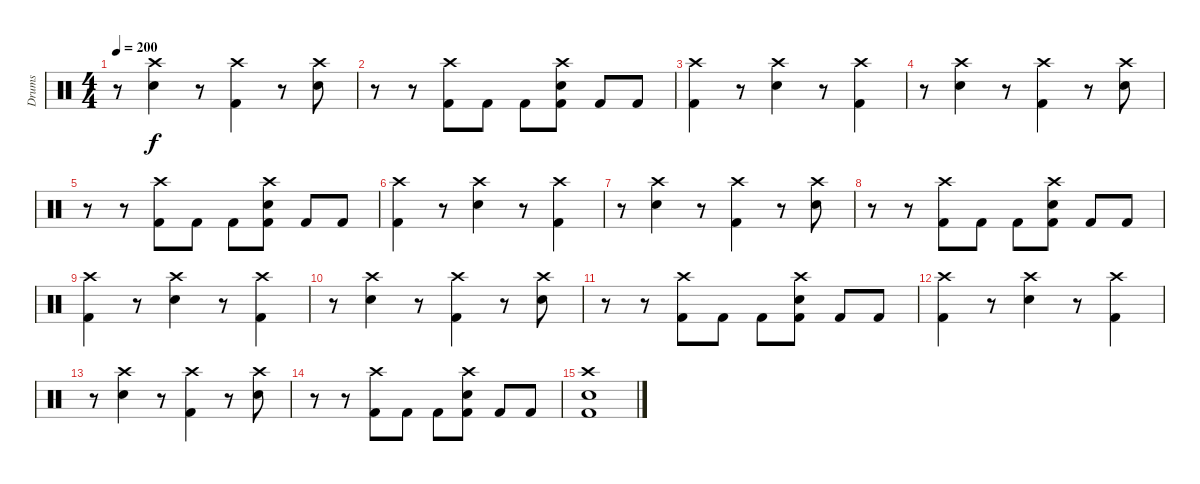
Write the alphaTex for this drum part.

\track ("Drums" "Drums") {instrument percussion}
\staff {score}
\articulation defaults
\ts (4 4)
\tempo 200
\clef neutral
\ks c
r.8{dy f} ("Crash high (hit)" "Snare (hit) 2").4 r.8 ("Crash high (hit)" "Kick (hit) 2").4 r.8 ("Crash high (hit)" "Snare (hit) 2").8 |
r.8 r.8 ("Crash high (hit)" "Kick (hit) 2").8 "Kick (hit) 2".8 "Kick (hit) 2".8 ("Crash high (hit)" "Snare (hit) 2" "Kick (hit) 2").8 "Kick (hit) 2".8 "Kick (hit) 2".8 |
("Crash high (hit)" "Kick (hit) 2").4 r.8 ("Crash high (hit)" "Snare (hit) 2").4 r.8 ("Crash high (hit)" "Kick (hit) 2").4 |
r.8 ("Crash high (hit)" "Snare (hit) 2").4 r.8 ("Crash high (hit)" "Kick (hit) 2").4 r.8 ("Crash high (hit)" "Snare (hit) 2").8 |
r.8 r.8 ("Crash high (hit)" "Kick (hit) 2").8 "Kick (hit) 2".8 "Kick (hit) 2".8 ("Crash high (hit)" "Snare (hit) 2" "Kick (hit) 2").8 "Kick (hit) 2".8 "Kick (hit) 2".8 |
("Crash high (hit)" "Kick (hit) 2").4 r.8 ("Crash high (hit)" "Snare (hit) 2").4 r.8 ("Crash high (hit)" "Kick (hit) 2").4 |
r.8 ("Crash high (hit)" "Snare (hit) 2").4 r.8 ("Crash high (hit)" "Kick (hit) 2").4 r.8 ("Crash high (hit)" "Snare (hit) 2").8 |
r.8 r.8 ("Crash high (hit)" "Kick (hit) 2").8 "Kick (hit) 2".8 "Kick (hit) 2".8 ("Crash high (hit)" "Snare (hit) 2" "Kick (hit) 2").8 "Kick (hit) 2".8 "Kick (hit) 2".8 |
("Crash high (hit)" "Kick (hit) 2").4 r.8 ("Crash high (hit)" "Snare (hit) 2").4 r.8 ("Crash high (hit)" "Kick (hit) 2").4 |
r.8 ("Crash high (hit)" "Snare (hit) 2").4 r.8 ("Crash high (hit)" "Kick (hit) 2").4 r.8 ("Crash high (hit)" "Snare (hit) 2").8 |
r.8 r.8 ("Crash high (hit)" "Kick (hit) 2").8 "Kick (hit) 2".8 "Kick (hit) 2".8 ("Crash high (hit)" "Snare (hit) 2" "Kick (hit) 2").8 "Kick (hit) 2".8 "Kick (hit) 2".8 |
("Crash high (hit)" "Kick (hit) 2").4 r.8 ("Crash high (hit)" "Snare (hit) 2").4 r.8 ("Crash high (hit)" "Kick (hit) 2").4 |
r.8 ("Crash high (hit)" "Snare (hit) 2").4 r.8 ("Crash high (hit)" "Kick (hit) 2").4 r.8 ("Crash high (hit)" "Snare (hit) 2").8 |
r.8 r.8 ("Crash high (hit)" "Kick (hit) 2").8 "Kick (hit) 2".8 "Kick (hit) 2".8 ("Crash high (hit)" "Snare (hit) 2" "Kick (hit) 2").8 "Kick (hit) 2".8 "Kick (hit) 2".8 |
("Crash high (hit)" "Snare (hit) 2" "Kick (hit) 2").1
